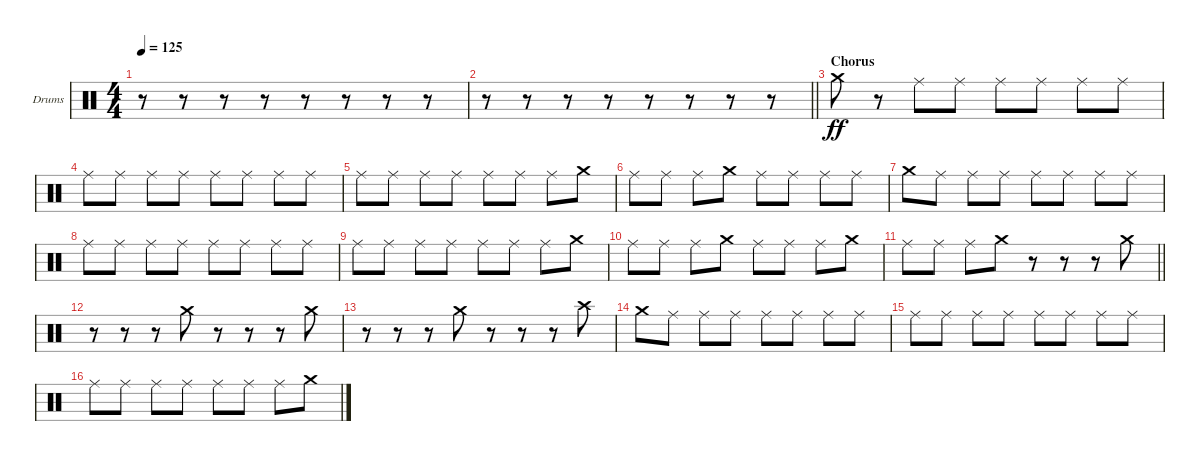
\bracketExtendMode groupsimilarinstruments
\firstSystemTrackNameOrientation horizontal
\otherSystemsTrackNameOrientation horizontal
\track ("Nick Menza" "Drums") {instrument percussion}
\staff {score}
\articulation defaults
\ts (4 4)
\tempo 125
\clef neutral
\scale
0.333333
\ks c
r.8{dy ff} r.8 r.8 r.8 r.8 r.8 r.8 r.8 |
\scale
0.333333
\barLineRight lightlight
r.8 r.8 r.8 r.8 r.8 r.8 r.8 r.8 |
\section ("" "Chorus")
\scale
0.333333 "Crash medium (hit)".8 r.8 "Ride (middle)".8 "Ride (middle)".8 "Ride (middle)".8 "Ride (middle)".8 "Ride (middle)".8 "Ride (middle)".8 |
\scale
0.333333 "Ride (middle)".8 "Ride (middle)".8 "Ride (middle)".8 "Ride (middle)".8 "Ride (middle)".8 "Ride (middle)".8 "Ride (middle)".8 "Ride (middle)".8 |
\scale
0.333333 "Ride (middle)".8 "Ride (middle)".8 "Ride (middle)".8 "Ride (middle)".8 "Ride (middle)".8 "Ride (middle)".8 "Ride (middle)".8 "Crash medium (hit)".8 |
\scale
0.333333 "Ride (middle)".8 "Ride (middle)".8 "Ride (middle)".8 "Crash medium (hit)".8 "Ride (middle)".8 "Ride (middle)".8 "Ride (middle)".8 "Ride (middle)".8 |
\scale
0.333333 "Crash medium (hit)".8 "Ride (middle)".8 "Ride (middle)".8 "Ride (middle)".8 "Ride (middle)".8 "Ride (middle)".8 "Ride (middle)".8 "Ride (middle)".8 |
\scale
0.333333 "Ride (middle)".8 "Ride (middle)".8 "Ride (middle)".8 "Ride (middle)".8 "Ride (middle)".8 "Ride (middle)".8 "Ride (middle)".8 "Ride (middle)".8 |
\scale
0.333333 "Ride (middle)".8 "Ride (middle)".8 "Ride (middle)".8 "Ride (middle)".8 "Ride (middle)".8 "Ride (middle)".8 "Ride (middle)".8 "Crash medium (hit)".8 |
\scale
0.333333 "Ride (middle)".8 "Ride (middle)".8 "Ride (middle)".8 "Crash medium (hit)".8 "Ride (middle)".8 "Ride (middle)".8 "Ride (middle)".8 "Crash medium (hit)".8 |
\scale
0.333333
\barLineRight lightlight "Ride (middle)".8 "Ride (middle)".8 "Ride (middle)".8 "Crash medium (hit)".8
r.8 r.8 r.8 "Crash medium (hit)".8 |
\scale
0.333333 r.8 r.8 r.8 "Crash medium (hit)".8 r.8 r.8 r.8 "Crash medium (hit)".8 |
\scale
0.333333 r.8 r.8 r.8 "Crash medium (hit)".8 r.8 r.8 r.8 "Crash high (hit)".8 |
\scale
0.333333 "Crash medium (hit)".8 "Ride (middle)".8 "Ride (middle)".8 "Ride (middle)".8 "Ride (middle)".8 "Ride (middle)".8 "Ride (middle)".8 "Ride (middle)".8 |
\scale
0.333333 "Ride (middle)".8 "Ride (middle)".8 "Ride (middle)".8 "Ride (middle)".8 "Ride (middle)".8 "Ride (middle)".8 "Ride (middle)".8 "Ride (middle)".8 |
\scale
0.333333 "Ride (middle)".8 "Ride (middle)".8 "Ride (middle)".8 "Ride (middle)".8 "Ride (middle)".8 "Ride (middle)".8 "Ride (middle)".8 "Crash medium (hit)".8
